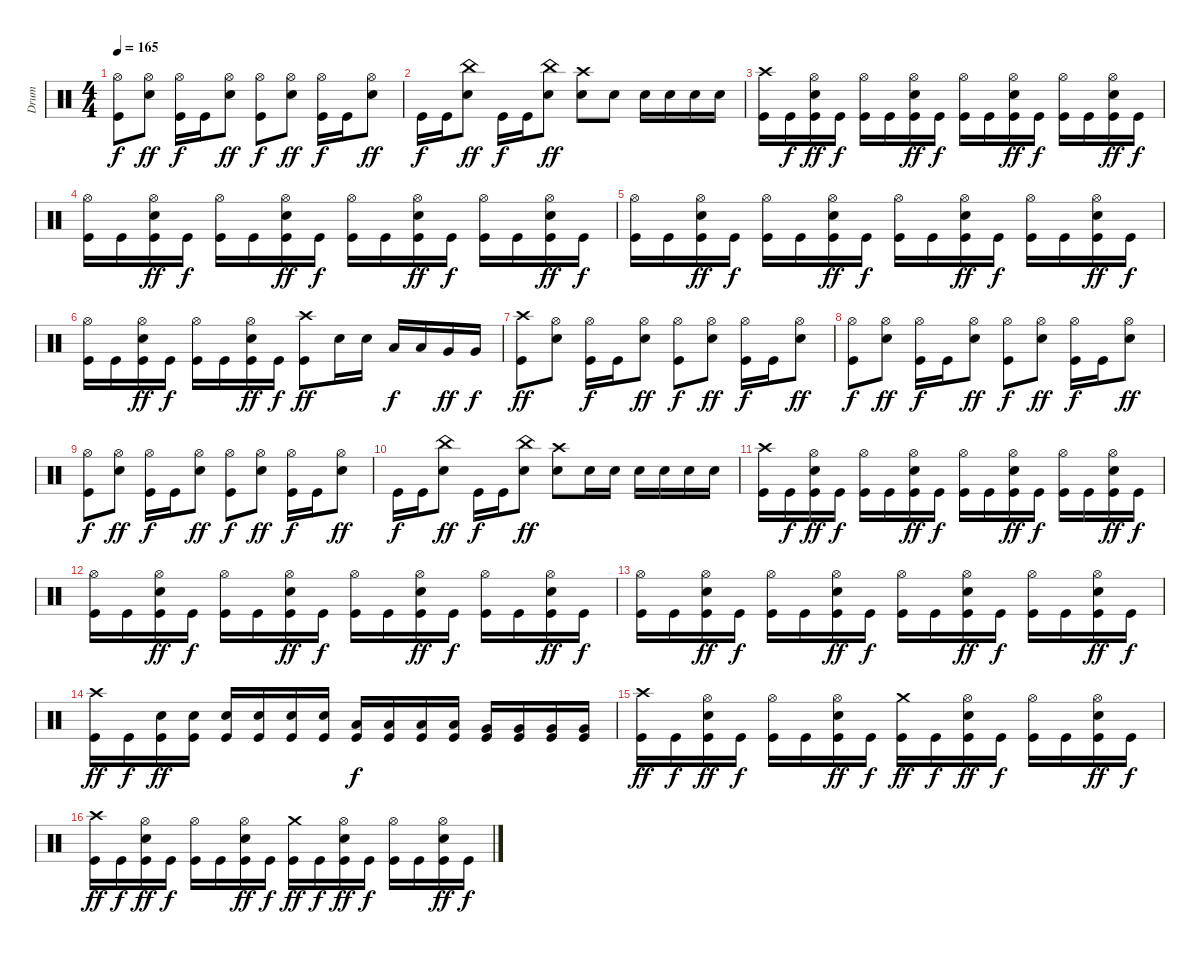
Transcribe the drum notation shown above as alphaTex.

\track ("Drum" "Drum") {instrument percussion}
\staff {score}
\articulation defaults
\ts (4 4)
\tempo 165
\clef neutral
\ks c
("Kick (hit)" "Hi-Hat (open)").8{dy f} ("Electric Snare (hit)" "Hi-Hat (open)").8{dy ff} ("Kick (hit)" "Hi-Hat (open)").16{dy f} "Kick (hit)".16 ("Electric Snare (hit)" "Hi-Hat (open)").8{dy ff} ("Kick (hit)" "Hi-Hat (open)").8{dy f} ("Electric Snare (hit)" "Hi-Hat (open)").8{dy ff} ("Kick (hit)" "Hi-Hat (open)").16{dy f} "Kick (hit)".16 ("Electric Snare (hit)" "Hi-Hat (open)").8{dy ff} |
"Kick (hit)".16{dy f} "Kick (hit)".16 ("Electric Snare (hit)" "China (hit)").8{dy ff} "Kick (hit)".16{dy f} "Kick (hit)".16 ("Electric Snare (hit)" "China (hit)").8{dy ff} ("Electric Snare (hit)" "Crash high (hit)").8 "Electric Snare (hit)".8 "Electric Snare (hit)".16 "Electric Snare (hit)".16 "Electric Snare (hit)".16 "Electric Snare (hit)".16 |
("Kick (hit)" "Crash high (hit)").16 "Kick (hit)".16{dy f} ("Kick (hit)" "Electric Snare (hit)" "Hi-Hat (open)").16{dy ff} "Kick (hit)".16{dy f} ("Kick (hit)" "Hi-Hat (open)").16 "Kick (hit)".16 ("Kick (hit)" "Electric Snare (hit)" "Hi-Hat (open)").16{dy ff} "Kick (hit)".16{dy f} ("Kick (hit)" "Hi-Hat (open)").16 "Kick (hit)".16 ("Kick (hit)" "Electric Snare (hit)" "Hi-Hat (open)").16{dy ff} "Kick (hit)".16{dy f} ("Kick (hit)" "Hi-Hat (open)").16 "Kick (hit)".16 ("Kick (hit)" "Electric Snare (hit)" "Hi-Hat (open)").16{dy ff} "Kick (hit)".16{dy f} |
("Kick (hit)" "Hi-Hat (open)").16 "Kick (hit)".16 ("Kick (hit)" "Electric Snare (hit)" "Hi-Hat (open)").16{dy ff} "Kick (hit)".16{dy f} ("Kick (hit)" "Hi-Hat (open)").16 "Kick (hit)".16 ("Kick (hit)" "Electric Snare (hit)" "Hi-Hat (open)").16{dy ff} "Kick (hit)".16{dy f} ("Kick (hit)" "Hi-Hat (open)").16 "Kick (hit)".16 ("Kick (hit)" "Electric Snare (hit)" "Hi-Hat (open)").16{dy ff} "Kick (hit)".16{dy f} ("Kick (hit)" "Hi-Hat (open)").16 "Kick (hit)".16 ("Kick (hit)" "Electric Snare (hit)" "Hi-Hat (open)").16{dy ff} "Kick (hit)".16{dy f} |
("Kick (hit)" "Hi-Hat (open)").16 "Kick (hit)".16 ("Kick (hit)" "Electric Snare (hit)" "Hi-Hat (open)").16{dy ff} "Kick (hit)".16{dy f} ("Kick (hit)" "Hi-Hat (open)").16 "Kick (hit)".16 ("Kick (hit)" "Electric Snare (hit)" "Hi-Hat (open)").16{dy ff} "Kick (hit)".16{dy f} ("Kick (hit)" "Hi-Hat (open)").16 "Kick (hit)".16 ("Kick (hit)" "Electric Snare (hit)" "Hi-Hat (open)").16{dy ff} "Kick (hit)".16{dy f} ("Kick (hit)" "Hi-Hat (open)").16 "Kick (hit)".16 ("Kick (hit)" "Electric Snare (hit)" "Hi-Hat (open)").16{dy ff} "Kick (hit)".16{dy f} |
("Kick (hit)" "Hi-Hat (open)").16 "Kick (hit)".16 ("Kick (hit)" "Electric Snare (hit)" "Hi-Hat (open)").16{dy ff} "Kick (hit)".16{dy f} ("Kick (hit)" "Hi-Hat (open)").16 "Kick (hit)".16 ("Kick (hit)" "Electric Snare (hit)" "Hi-Hat (open)").16{dy ff} "Kick (hit)".16{dy f} ("Kick (hit)" "Crash high (hit)").8{dy ff} "Electric Snare (hit)".16 "Electric Snare (hit)".16 "Low Tom (hit)".16{dy f} "Low Tom (hit)".16 "Very Low Tom (hit)".16{dy ff} "Very Low Tom (hit)".16{dy f} |
("Kick (hit)" "Crash high (hit)").8{dy ff} ("Electric Snare (hit)" "Hi-Hat (open)").8 ("Kick (hit)" "Hi-Hat (open)").16{dy f} "Kick (hit)".16 ("Electric Snare (hit)" "Hi-Hat (open)").8{dy ff} ("Kick (hit)" "Hi-Hat (open)").8{dy f} ("Electric Snare (hit)" "Hi-Hat (open)").8{dy ff} ("Kick (hit)" "Hi-Hat (open)").16{dy f} "Kick (hit)".16 ("Electric Snare (hit)" "Hi-Hat (open)").8{dy ff} |
("Kick (hit)" "Hi-Hat (open)").8{dy f} ("Electric Snare (hit)" "Hi-Hat (open)").8{dy ff} ("Kick (hit)" "Hi-Hat (open)").16{dy f} "Kick (hit)".16 ("Electric Snare (hit)" "Hi-Hat (open)").8{dy ff} ("Kick (hit)" "Hi-Hat (open)").8{dy f} ("Electric Snare (hit)" "Hi-Hat (open)").8{dy ff} ("Kick (hit)" "Hi-Hat (open)").16{dy f} "Kick (hit)".16 ("Electric Snare (hit)" "Hi-Hat (open)").8{dy ff} |
("Kick (hit)" "Hi-Hat (open)").8{dy f} ("Electric Snare (hit)" "Hi-Hat (open)").8{dy ff} ("Kick (hit)" "Hi-Hat (open)").16{dy f} "Kick (hit)".16 ("Electric Snare (hit)" "Hi-Hat (open)").8{dy ff} ("Kick (hit)" "Hi-Hat (open)").8{dy f} ("Electric Snare (hit)" "Hi-Hat (open)").8{dy ff} ("Kick (hit)" "Hi-Hat (open)").16{dy f} "Kick (hit)".16 ("Electric Snare (hit)" "Hi-Hat (open)").8{dy ff} |
"Kick (hit)".16{dy f} "Kick (hit)".16 ("Electric Snare (hit)" "China (hit)").8{dy ff} "Kick (hit)".16{dy f} "Kick (hit)".16 ("Electric Snare (hit)" "China (hit)").8{dy ff} ("Electric Snare (hit)" "Crash high (hit)").8 "Electric Snare (hit)".16 "Electric Snare (hit)".16 "Electric Snare (hit)".16 "Electric Snare (hit)".16 "Electric Snare (hit)".16 "Electric Snare (hit)".16 |
("Kick (hit)" "Crash high (hit)").16 "Kick (hit)".16{dy f} ("Kick (hit)" "Electric Snare (hit)" "Hi-Hat (open)").16{dy ff} "Kick (hit)".16{dy f} ("Kick (hit)" "Hi-Hat (open)").16 "Kick (hit)".16 ("Kick (hit)" "Electric Snare (hit)" "Hi-Hat (open)").16{dy ff} "Kick (hit)".16{dy f} ("Kick (hit)" "Hi-Hat (open)").16 "Kick (hit)".16 ("Kick (hit)" "Electric Snare (hit)" "Hi-Hat (open)").16{dy ff} "Kick (hit)".16{dy f} ("Kick (hit)" "Hi-Hat (open)").16 "Kick (hit)".16 ("Kick (hit)" "Electric Snare (hit)" "Hi-Hat (open)").16{dy ff} "Kick (hit)".16{dy f} |
("Kick (hit)" "Hi-Hat (open)").16 "Kick (hit)".16 ("Kick (hit)" "Electric Snare (hit)" "Hi-Hat (open)").16{dy ff} "Kick (hit)".16{dy f} ("Kick (hit)" "Hi-Hat (open)").16 "Kick (hit)".16 ("Kick (hit)" "Electric Snare (hit)" "Hi-Hat (open)").16{dy ff} "Kick (hit)".16{dy f} ("Kick (hit)" "Hi-Hat (open)").16 "Kick (hit)".16 ("Kick (hit)" "Electric Snare (hit)" "Hi-Hat (open)").16{dy ff} "Kick (hit)".16{dy f} ("Kick (hit)" "Hi-Hat (open)").16 "Kick (hit)".16 ("Kick (hit)" "Electric Snare (hit)" "Hi-Hat (open)").16{dy ff} "Kick (hit)".16{dy f} |
("Kick (hit)" "Hi-Hat (open)").16 "Kick (hit)".16 ("Kick (hit)" "Electric Snare (hit)" "Hi-Hat (open)").16{dy ff} "Kick (hit)".16{dy f} ("Kick (hit)" "Hi-Hat (open)").16 "Kick (hit)".16 ("Kick (hit)" "Electric Snare (hit)" "Hi-Hat (open)").16{dy ff} "Kick (hit)".16{dy f} ("Kick (hit)" "Hi-Hat (open)").16 "Kick (hit)".16 ("Kick (hit)" "Electric Snare (hit)" "Hi-Hat (open)").16{dy ff} "Kick (hit)".16{dy f} ("Kick (hit)" "Hi-Hat (open)").16 "Kick (hit)".16 ("Kick (hit)" "Electric Snare (hit)" "Hi-Hat (open)").16{dy ff} "Kick (hit)".16{dy f} |
("Kick (hit)" "Crash high (hit)").16{dy ff} "Kick (hit)".16{dy f} ("Kick (hit)" "Electric Snare (hit)").16{dy ff} ("Kick (hit)" "Electric Snare (hit)").16 ("Kick (hit)" "Electric Snare (hit)").16 ("Kick (hit)" "Electric Snare (hit)").16 ("Kick (hit)" "Electric Snare (hit)").16 ("Kick (hit)" "Electric Snare (hit)").16 ("Kick (hit)" "Low Tom (hit)").16{dy f} ("Kick (hit)" "Low Tom (hit)").16 ("Kick (hit)" "Low Tom (hit)").16 ("Kick (hit)" "Low Tom (hit)").16 ("Kick (hit)" "Very Low Tom (hit)").16 ("Kick (hit)" "Very Low Tom (hit)").16 ("Kick (hit)" "Very Low Tom (hit)").16 ("Kick (hit)" "Very Low Tom (hit)").16 |
("Kick (hit)" "Crash high (hit)").16{dy ff} "Kick (hit)".16{dy f} ("Kick (hit)" "Electric Snare (hit)" "Hi-Hat (open)").16{dy ff} "Kick (hit)".16{dy f} ("Kick (hit)" "Hi-Hat (open)").16 "Kick (hit)".16 ("Kick (hit)" "Electric Snare (hit)" "Hi-Hat (open)").16{dy ff} "Kick (hit)".16{dy f} ("Kick (hit)" "Crash medium (hit)").16{dy ff} "Kick (hit)".16{dy f} ("Kick (hit)" "Electric Snare (hit)" "Hi-Hat (open)").16{dy ff} "Kick (hit)".16{dy f} ("Kick (hit)" "Hi-Hat (open)").16 "Kick (hit)".16 ("Kick (hit)" "Electric Snare (hit)" "Hi-Hat (open)").16{dy ff} "Kick (hit)".16{dy f} |
("Kick (hit)" "Crash high (hit)").16{dy ff} "Kick (hit)".16{dy f} ("Kick (hit)" "Electric Snare (hit)" "Hi-Hat (open)").16{dy ff} "Kick (hit)".16{dy f} ("Kick (hit)" "Hi-Hat (open)").16 "Kick (hit)".16 ("Kick (hit)" "Electric Snare (hit)" "Hi-Hat (open)").16{dy ff} "Kick (hit)".16{dy f} ("Kick (hit)" "Crash medium (hit)").16{dy ff} "Kick (hit)".16{dy f} ("Kick (hit)" "Electric Snare (hit)" "Hi-Hat (open)").16{dy ff} "Kick (hit)".16{dy f} ("Kick (hit)" "Hi-Hat (open)").16 "Kick (hit)".16 ("Kick (hit)" "Electric Snare (hit)" "Hi-Hat (open)").16{dy ff} "Kick (hit)".16{dy f}
